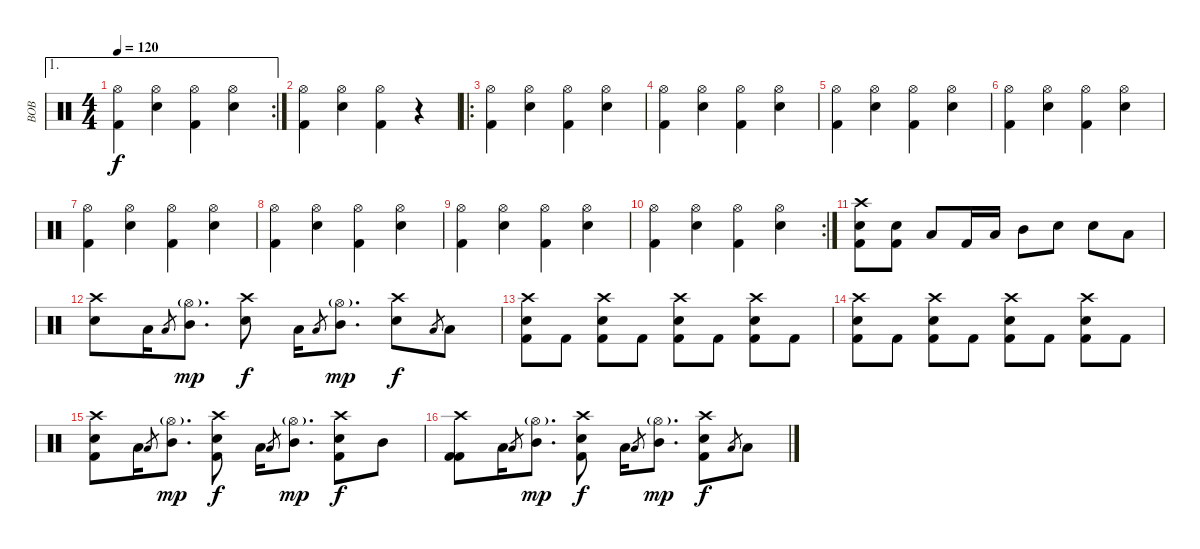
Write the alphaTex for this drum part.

\track ("BOB" "BOB") {instrument percussion}
\staff {score}
\articulation defaults
\ae 1
\rc 2
\ts (4 4)
\tempo 120
\clef neutral
\ks c
("Hi-Hat (open)" "Kick (hit) 2").4{dy f} ("Hi-Hat (open)" "Electric Snare (hit)").4 ("Hi-Hat (open)" "Kick (hit) 2").4 ("Hi-Hat (open)" "Electric Snare (hit)").4 |
("Hi-Hat (open)" "Kick (hit) 2").4 ("Hi-Hat (open)" "Electric Snare (hit)").4 ("Hi-Hat (open)" "Kick (hit) 2").4 r.4 |
\ro
("Hi-Hat (open)" "Kick (hit) 2").4 ("Hi-Hat (open)" "Electric Snare (hit)").4 ("Hi-Hat (open)" "Kick (hit) 2").4 ("Hi-Hat (open)" "Electric Snare (hit)").4 |
("Hi-Hat (open)" "Kick (hit) 2").4 ("Hi-Hat (open)" "Electric Snare (hit)").4 ("Hi-Hat (open)" "Kick (hit) 2").4 ("Hi-Hat (open)" "Electric Snare (hit)").4 |
("Hi-Hat (open)" "Kick (hit) 2").4 ("Hi-Hat (open)" "Electric Snare (hit)").4 ("Hi-Hat (open)" "Kick (hit) 2").4 ("Hi-Hat (open)" "Electric Snare (hit)").4 |
("Hi-Hat (open)" "Kick (hit) 2").4 ("Hi-Hat (open)" "Electric Snare (hit)").4 ("Hi-Hat (open)" "Kick (hit) 2").4 ("Hi-Hat (open)" "Electric Snare (hit)").4 |
("Hi-Hat (open)" "Kick (hit) 2").4 ("Hi-Hat (open)" "Electric Snare (hit)").4 ("Hi-Hat (open)" "Kick (hit) 2").4 ("Hi-Hat (open)" "Electric Snare (hit)").4 |
("Hi-Hat (open)" "Kick (hit) 2").4 ("Hi-Hat (open)" "Electric Snare (hit)").4 ("Hi-Hat (open)" "Kick (hit) 2").4 ("Hi-Hat (open)" "Electric Snare (hit)").4 |
("Hi-Hat (open)" "Kick (hit) 2").4 ("Hi-Hat (open)" "Electric Snare (hit)").4 ("Hi-Hat (open)" "Kick (hit) 2").4 ("Hi-Hat (open)" "Electric Snare (hit)").4 |
\rc 2
("Hi-Hat (open)" "Kick (hit) 2").4 ("Hi-Hat (open)" "Electric Snare (hit)").4 ("Hi-Hat (open)" "Kick (hit) 2").4 ("Hi-Hat (open)" "Electric Snare (hit)").4 |
("Crash high (hit)" "Electric Snare (hit)" "Kick (hit) 2").8 ("Electric Snare (hit)" "Kick (hit) 2").8 "Low Tom (hit)".8 "Kick (hit) 2".16 "Low Tom (hit)".16 "Mid Tom (hit)".8 "Electric Snare (hit)".8 "Electric Snare (hit)".8 "Low Tom (hit)".8 |
("Crash high (hit)" "Electric Snare (hit)").8 "Low Tom (hit)".16 "Low Floor Tom (hit)".8{gr} ("Hi-Hat (open)"{g} "Mid Tom (hit)").8{d dy mp} ("Crash high (hit)" "Electric Snare (hit)").8{dy f} "Low Tom (hit)".16 "Low Floor Tom (hit)".8{gr} ("Hi-Hat (open)"{g} "Mid Tom (hit)").8{d dy mp} ("Crash high (hit)" "Electric Snare (hit)").8{dy f} "Low Floor Tom (hit)".8{gr} "Low Tom (hit)".8 |
("Crash high (hit)" "Electric Snare (hit)" "Kick (hit) 2").8 "Kick (hit) 2".8 ("Crash high (hit)" "Electric Snare (hit)" "Kick (hit) 2").8 "Kick (hit) 2".8 ("Crash high (hit)" "Electric Snare (hit)" "Kick (hit) 2").8 "Kick (hit) 2".8 ("Crash high (hit)" "Electric Snare (hit)" "Kick (hit) 2").8 "Kick (hit) 2".8 |
("Crash high (hit)" "Electric Snare (hit)" "Kick (hit) 2").8 "Kick (hit) 2".8 ("Crash high (hit)" "Electric Snare (hit)" "Kick (hit) 2").8 "Kick (hit) 2".8 ("Crash high (hit)" "Electric Snare (hit)" "Kick (hit) 2").8 "Kick (hit) 2".8 ("Crash high (hit)" "Electric Snare (hit)" "Kick (hit) 2").8 "Kick (hit) 2".8 |
("Crash high (hit)" "Electric Snare (hit)" "Kick (hit) 2").8 "Low Tom (hit)".16 "Low Floor Tom (hit)".8{gr} ("Hi-Hat (open)"{g} "Mid Tom (hit)").8{d dy mp} ("Crash high (hit)" "Electric Snare (hit)" "Kick (hit) 2").8{dy f} "Low Tom (hit)".16 "Low Floor Tom (hit)".8{gr} ("Hi-Hat (open)"{g} "Mid Tom (hit)").8{d dy mp} ("Crash high (hit)" "Electric Snare (hit)" "Kick (hit) 2").8{dy f} "Mid Tom (hit)".8 |
("Crash high (hit)" "Kick (hit) 2" "Kick (hit) 2").8 "Low Tom (hit)".16 "Low Floor Tom (hit)".8{gr} ("Hi-Hat (open)"{g} "Mid Tom (hit)").8{d dy mp} ("Crash high (hit)" "Electric Snare (hit)" "Kick (hit) 2").8{dy f} "Low Tom (hit)".16 "Low Floor Tom (hit)".8{gr} ("Hi-Hat (open)"{g} "Mid Tom (hit)").8{d dy mp} ("Crash high (hit)" "Electric Snare (hit)" "Kick (hit) 2").8{dy f} "Low Floor Tom (hit)".8{gr} "Low Tom (hit)".8
